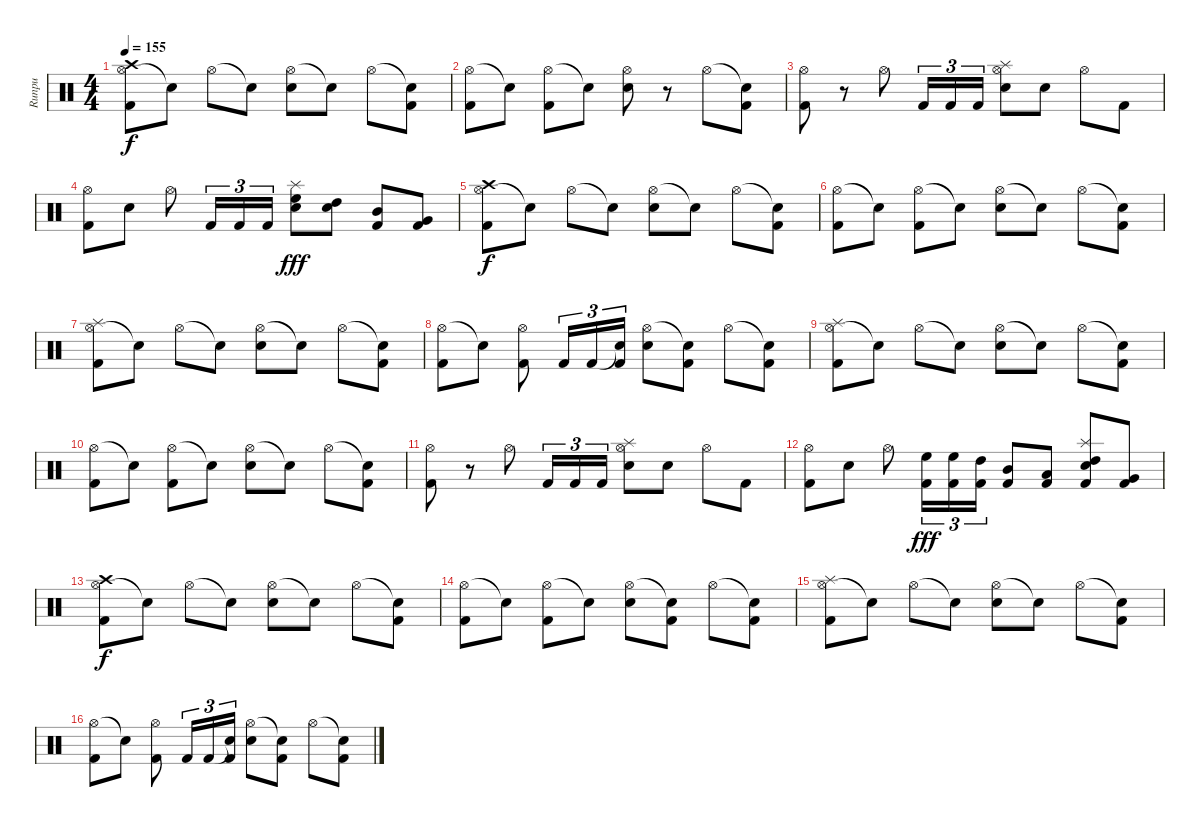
\track ("Runpu" "Runpu") {instrument percussion}
\staff {score}
\articulation defaults
\ts (4 4)
\tempo 155
\clef neutral
\ks c
("Hi-Hat (open)" "Crash high (hit)" "Kick (hit) 2").8{dy f} "Snare (hit)"{t}.8 "Hi-Hat (open)".8 "Snare (hit)"{t}.8 ("Hi-Hat (open)" "Snare (hit) 2").8 "Snare (hit)"{t}.8 "Hi-Hat (open)".8 ("Snare (hit)"{t} "Kick (hit) 2").8 |
("Hi-Hat (open)" "Kick (hit) 2").8 "Snare (hit)"{t}.8 ("Hi-Hat (open)" "Kick (hit) 2").8 "Snare (hit)"{t}.8 ("Hi-Hat (open)" "Snare (hit) 2").8 r.8 "Hi-Hat (open)".8 ("Snare (hit)"{t} "Kick (hit) 2").8 |
("Hi-Hat (open)" "Kick (hit) 2").8 r.8 "Hi-Hat (open)".8 "Kick (hit) 2".16{tu (3 2)} "Kick (hit) 2".16{tu (3 2)} "Kick (hit) 2".16{tu (3 2)} ("Hi-Hat (open)" "Splash (hit)" "Snare (hit) 2").8 "Snare (hit) 2".8 "Hi-Hat (open)".8 "Kick (hit) 2".8 |
("Hi-Hat (open)" "Kick (hit) 2").8 "Snare (hit) 2".8 "Hi-Hat (open)".8 "Kick (hit) 2".16{tu (3 2)} "Kick (hit) 2".16{tu (3 2)} "Kick (hit) 2".16{tu (3 2)} ("Splash (hit)" "High Floor Tom (hit)" "Snare (hit) 2").8{dy fff} ("High Tom (hit)" "Snare (hit) 2").8 ("Mid Tom (hit)" "Kick (hit) 2").8 ("Very Low Tom (hit)" "Kick (hit) 2").8 |
("Hi-Hat (open)" "Crash high (hit)" "Kick (hit) 2").8{dy f} "Snare (hit)"{t}.8 "Hi-Hat (open)".8 "Snare (hit)"{t}.8 ("Hi-Hat (open)" "Snare (hit) 2").8 "Snare (hit)"{t}.8 "Hi-Hat (open)".8 ("Snare (hit)"{t} "Kick (hit) 2").8 |
("Hi-Hat (open)" "Kick (hit) 2").8 "Snare (hit)"{t}.8 ("Hi-Hat (open)" "Kick (hit) 2").8 "Snare (hit)"{t}.8 ("Hi-Hat (open)" "Snare (hit) 2").8 "Snare (hit)"{t}.8 "Hi-Hat (open)".8 ("Snare (hit)"{t} "Kick (hit) 2").8 |
("Hi-Hat (open)" "Splash (hit)" "Kick (hit) 2").8 "Snare (hit)"{t}.8 "Hi-Hat (open)".8 "Snare (hit)"{t}.8 ("Hi-Hat (open)" "Snare (hit) 2").8 "Snare (hit)"{t}.8 "Hi-Hat (open)".8 ("Snare (hit)"{t} "Kick (hit) 2").8 |
("Hi-Hat (open)" "Kick (hit) 2").8 "Snare (hit)"{t}.8 ("Hi-Hat (open)" "Kick (hit) 2").8 "Kick (hit) 2".16{tu (3 2)} "Kick (hit) 2".16{tu (3 2)} ("Snare (hit)"{t} "Kick (hit) 2").16{tu (3 2)} ("Hi-Hat (open)" "Snare (hit) 2").8 ("Snare (hit)"{t} "Kick (hit) 2").8 "Hi-Hat (open)".8 ("Snare (hit)"{t} "Kick (hit) 2").8 |
("Hi-Hat (open)" "Splash (hit)" "Kick (hit) 2").8 "Snare (hit)"{t}.8 "Hi-Hat (open)".8 "Snare (hit)"{t}.8 ("Hi-Hat (open)" "Snare (hit) 2").8 "Snare (hit)"{t}.8 "Hi-Hat (open)".8 ("Snare (hit)"{t} "Kick (hit) 2").8 |
("Hi-Hat (open)" "Kick (hit) 2").8 "Snare (hit)"{t}.8 ("Hi-Hat (open)" "Kick (hit) 2").8 "Snare (hit)"{t}.8 ("Hi-Hat (open)" "Snare (hit) 2").8 "Snare (hit)"{t}.8 "Hi-Hat (open)".8 ("Snare (hit)"{t} "Kick (hit) 2").8 |
("Hi-Hat (open)" "Kick (hit) 2").8 r.8 "Hi-Hat (open)".8 "Kick (hit) 2".16{tu (3 2)} "Kick (hit) 2".16{tu (3 2)} "Kick (hit) 2".16{tu (3 2)} ("Hi-Hat (open)" "Splash (hit)" "Snare (hit) 2").8 "Snare (hit) 2".8 "Hi-Hat (open)".8 "Kick (hit) 2".8 |
("Hi-Hat (open)" "Kick (hit) 2").8 "Snare (hit) 2".8 "Hi-Hat (open)".8 ("High Floor Tom (hit)" "Kick (hit) 2").16{tu (3 2) dy fff} ("High Floor Tom (hit)" "Kick (hit) 2").16{tu (3 2)} ("High Tom (hit)" "Kick (hit) 2").16{tu (3 2)} ("Mid Tom (hit)" "Kick (hit) 2").8 ("Low Tom (hit)" "Kick (hit) 2").8 ("Splash (hit)" "High Tom (hit)" "Snare (hit) 2" "Kick (hit) 2").8 ("Very Low Tom (hit)" "Kick (hit) 2").8 |
("Hi-Hat (open)" "Crash high (hit)" "Kick (hit) 2").8{dy f} "Snare (hit)"{t}.8 "Hi-Hat (open)".8 "Snare (hit)"{t}.8 ("Hi-Hat (open)" "Snare (hit) 2").8 "Snare (hit)"{t}.8 "Hi-Hat (open)".8 ("Snare (hit)"{t} "Kick (hit) 2").8 |
("Hi-Hat (open)" "Kick (hit) 2").8 "Snare (hit)"{t}.8 ("Hi-Hat (open)" "Kick (hit) 2").8 "Snare (hit)"{t}.8 ("Hi-Hat (open)" "Snare (hit) 2").8 ("Snare (hit)"{t} "Kick (hit) 2").8 "Hi-Hat (open)".8 ("Snare (hit)"{t} "Kick (hit) 2").8 |
("Hi-Hat (open)" "Splash (hit)" "Kick (hit) 2").8 "Snare (hit)"{t}.8 "Hi-Hat (open)".8 "Snare (hit)"{t}.8 ("Hi-Hat (open)" "Snare (hit) 2").8 "Snare (hit)"{t}.8 "Hi-Hat (open)".8 ("Snare (hit)"{t} "Kick (hit) 2").8 |
("Hi-Hat (open)" "Kick (hit) 2").8 "Snare (hit)"{t}.8 ("Hi-Hat (open)" "Kick (hit) 2").8 "Kick (hit) 2".16{tu (3 2)} "Kick (hit) 2".16{tu (3 2)} ("Snare (hit)"{t} "Kick (hit) 2").16{tu (3 2)} ("Hi-Hat (open)" "Snare (hit) 2").8 ("Snare (hit)"{t} "Kick (hit) 2").8 "Hi-Hat (open)".8 ("Snare (hit)"{t} "Kick (hit) 2").8
